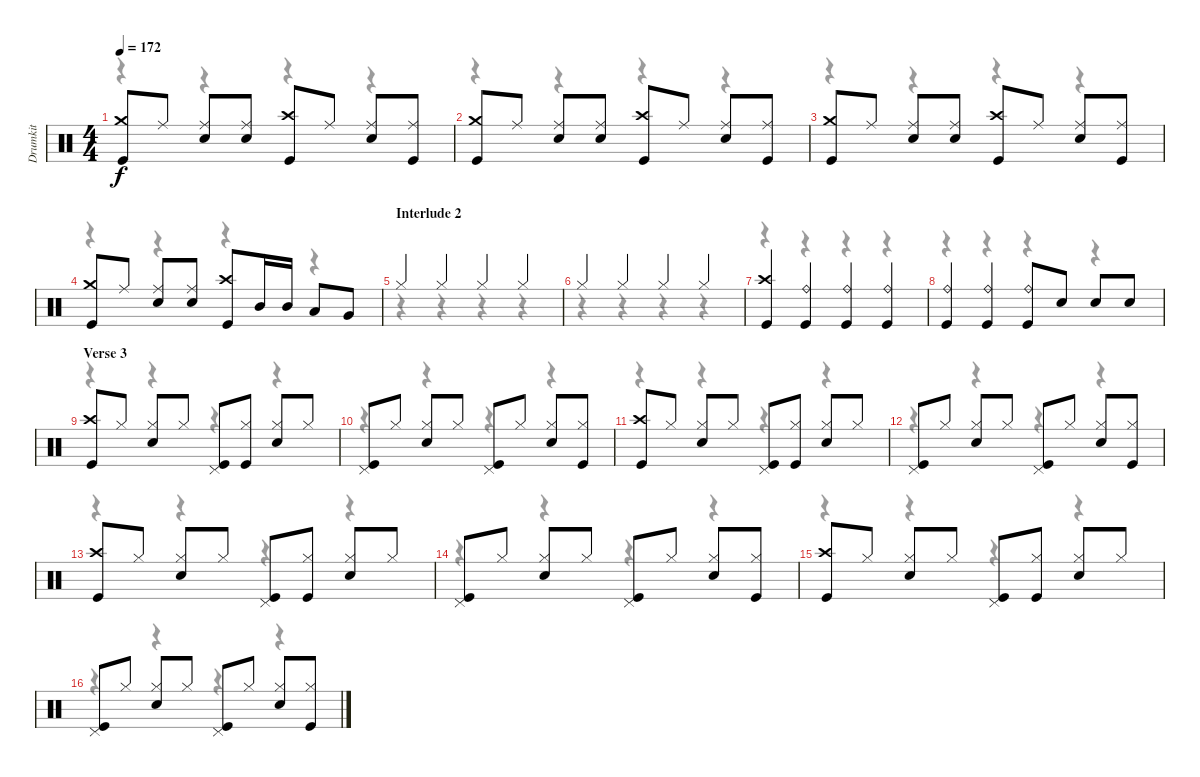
\track ("Drumkit" "Drumkit") {instrument percussion}
\staff {score}
\articulation defaults
\voice
\ts (4 4)
\tempo 172
\clef neutral
\ks c
("Crash medium (hit)" "Kick (hit)").8{dy f} "Ride (middle)".8 ("Ride (middle)" "Snare (hit) 2").8 ("Ride (middle)" "Snare (hit) 2").8 ("Crash high (hit)" "Kick (hit)").8 "Ride (middle)".8 ("Ride (middle)" "Snare (hit) 2").8 ("Ride (middle)" "Kick (hit)").8 |
("Crash medium (hit)" "Kick (hit)").8 "Ride (middle)".8 ("Ride (middle)" "Snare (hit) 2").8 ("Ride (middle)" "Snare (hit) 2").8 ("Crash high (hit)" "Kick (hit)").8 "Ride (middle)".8 ("Ride (middle)" "Snare (hit) 2").8 ("Ride (middle)" "Kick (hit)").8 |
("Crash medium (hit)" "Kick (hit)").8 "Ride (middle)".8 ("Ride (middle)" "Snare (hit) 2").8 ("Ride (middle)" "Snare (hit) 2").8 ("Crash high (hit)" "Kick (hit)").8 "Ride (middle)".8 ("Ride (middle)" "Snare (hit) 2").8 ("Ride (middle)" "Kick (hit)").8 |
("Crash medium (hit)" "Kick (hit)").8 "Ride (middle)".8 ("Ride (middle)" "Snare (hit) 2").8 ("Ride (middle)" "Snare (hit) 2").8 ("Crash high (hit)" "Kick (hit)").8 "Mid Tom (hit)".16 "Mid Tom (hit)".16 "Low Tom (hit)".8 "Very Low Tom (hit)".8 |
\section ("" "Interlude 2")
"Hi-Hat (closed)".4 "Hi-Hat (closed)".4 "Hi-Hat (closed)".4 "Hi-Hat (closed)".4 |
"Hi-Hat (closed)".4 "Hi-Hat (closed)".4 "Hi-Hat (closed)".4 "Hi-Hat (closed)".4 |
("Crash high (hit)" "Kick (hit)").4 ("Ride (bell)" "Kick (hit)").4 ("Ride (bell)" "Kick (hit)").4 ("Ride (bell)" "Kick (hit)").4 |
("Ride (bell)" "Kick (hit)").4 ("Ride (bell)" "Kick (hit)").4 ("Ride (bell)" "Kick (hit)").8 "Snare (hit) 2".8 "Snare (hit) 2".8 "Snare (hit) 2".8 |
\section ("" "Verse 3")
("Crash high (hit)" "Kick (hit)").8 "Hi-Hat (closed)".8 ("Hi-Hat (closed)" "Snare (hit) 2").8 "Hi-Hat (closed)".8 ("Pedal Hi-Hat (hit)" "Kick (hit)").8 ("Hi-Hat (closed)" "Kick (hit)").8 ("Hi-Hat (closed)" "Snare (hit) 2").8 "Hi-Hat (closed)".8 |
("Pedal Hi-Hat (hit)" "Kick (hit)").8 "Hi-Hat (closed)".8 ("Hi-Hat (closed)" "Snare (hit) 2").8 "Hi-Hat (closed)".8 ("Pedal Hi-Hat (hit)" "Kick (hit)").8 "Hi-Hat (closed)".8 ("Hi-Hat (closed)" "Snare (hit) 2").8 ("Hi-Hat (closed)" "Kick (hit)").8 |
("Crash high (hit)" "Kick (hit)").8 "Hi-Hat (closed)".8 ("Hi-Hat (closed)" "Snare (hit) 2").8 "Hi-Hat (closed)".8 ("Pedal Hi-Hat (hit)" "Kick (hit)").8 ("Hi-Hat (closed)" "Kick (hit)").8 ("Hi-Hat (closed)" "Snare (hit) 2").8 "Hi-Hat (closed)".8 |
("Pedal Hi-Hat (hit)" "Kick (hit)").8 "Hi-Hat (closed)".8 ("Hi-Hat (closed)" "Snare (hit) 2").8 "Hi-Hat (closed)".8 ("Pedal Hi-Hat (hit)" "Kick (hit)").8 "Hi-Hat (closed)".8 ("Hi-Hat (closed)" "Snare (hit) 2").8 ("Hi-Hat (closed)" "Kick (hit)").8 |
("Crash high (hit)" "Kick (hit)").8 "Hi-Hat (closed)".8 ("Hi-Hat (closed)" "Snare (hit) 2").8 "Hi-Hat (closed)".8 ("Pedal Hi-Hat (hit)" "Kick (hit)").8 ("Hi-Hat (closed)" "Kick (hit)").8 ("Hi-Hat (closed)" "Snare (hit) 2").8 "Hi-Hat (closed)".8 |
("Pedal Hi-Hat (hit)" "Kick (hit)").8 "Hi-Hat (closed)".8 ("Hi-Hat (closed)" "Snare (hit) 2").8 "Hi-Hat (closed)".8 ("Pedal Hi-Hat (hit)" "Kick (hit)").8 "Hi-Hat (closed)".8 ("Hi-Hat (closed)" "Snare (hit) 2").8 ("Hi-Hat (closed)" "Kick (hit)").8 |
("Crash high (hit)" "Kick (hit)").8 "Hi-Hat (closed)".8 ("Hi-Hat (closed)" "Snare (hit) 2").8 "Hi-Hat (closed)".8 ("Pedal Hi-Hat (hit)" "Kick (hit)").8 ("Hi-Hat (closed)" "Kick (hit)").8 ("Hi-Hat (closed)" "Snare (hit) 2").8 "Hi-Hat (closed)".8 |
("Pedal Hi-Hat (hit)" "Kick (hit)").8 "Hi-Hat (closed)".8 ("Hi-Hat (closed)" "Snare (hit) 2").8 "Hi-Hat (closed)".8 ("Pedal Hi-Hat (hit)" "Kick (hit)").8 "Hi-Hat (closed)".8 ("Hi-Hat (closed)" "Snare (hit) 2").8 ("Hi-Hat (closed)" "Kick (hit)").8
\voice
\clef neutral
\ottava regular
\simile none
\ks c
r.4{dy f} r.4 r.4 r.4 |
r.4 r.4 r.4 r.4 |
r.4 r.4 r.4 r.4 |
r.4 r.4 r.4 r.4 |
r.4 r.4 r.4 r.4 |
r.4 r.4 r.4 r.4 |
r.4 r.4 r.4 r.4 |
r.4 r.4 r.4 r.4 |
r.4 r.4 r.4 r.4 |
r.4 r.4 r.4 r.4 |
r.4 r.4 r.4 r.4 |
r.4 r.4 r.4 r.4 |
r.4 r.4 r.4 r.4 |
r.4 r.4 r.4 r.4 |
r.4 r.4 r.4 r.4 |
r.4 r.4 r.4 r.4
